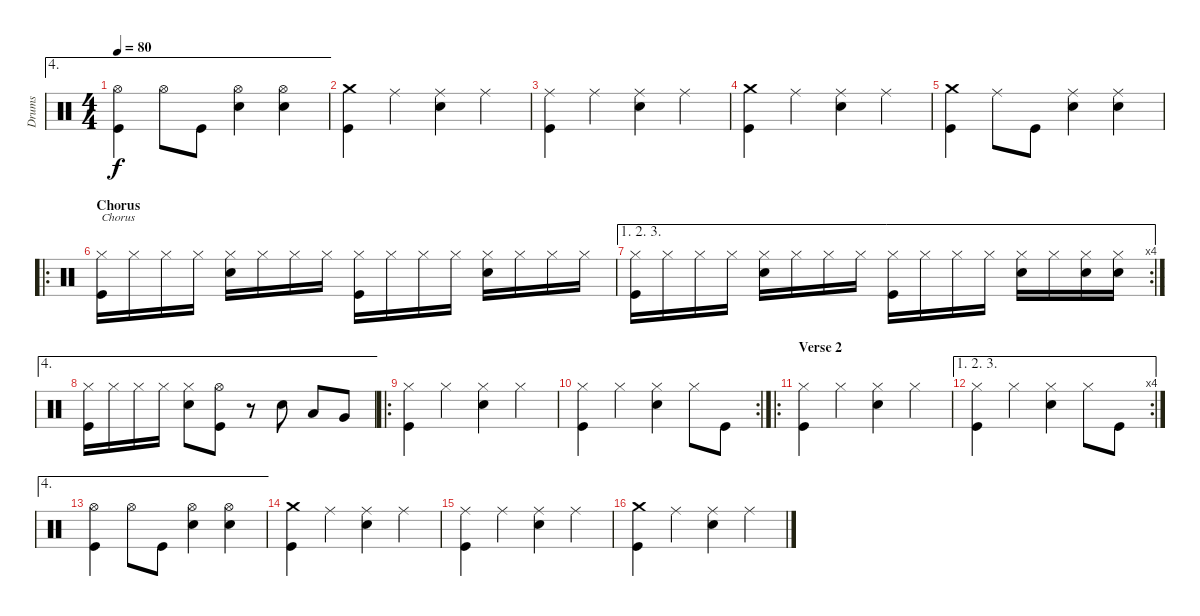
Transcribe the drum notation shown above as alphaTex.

\track ("Drums" "Drums") {instrument percussion}
\staff {score}
\articulation defaults
\ae 4
\ts (4 4)
\tempo 80
\clef neutral
\ks c
("Hi-Hat (open)" "Kick (hit)").4{dy f} "Hi-Hat (open)".8 "Kick (hit)".8 ("Hi-Hat (open)" "Snare (hit) 2").4 ("Hi-Hat (open)" "Snare (hit) 2").4 |
("Crash medium (hit)" "Kick (hit)").4 "Ride (middle)".4 ("Ride (middle)" "Snare (hit) 2").4 "Ride (middle)".4 |
("Ride (middle)" "Kick (hit)").4 "Ride (middle)".4 ("Ride (middle)" "Snare (hit) 2").4 "Ride (middle)".4 |
("Crash medium (hit)" "Kick (hit)").4 "Ride (middle)".4 ("Ride (middle)" "Snare (hit) 2").4 "Ride (middle)".4 |
("Crash medium (hit)" "Kick (hit)").4 "Ride (middle)".8 "Kick (hit)".8 ("Ride (middle)" "Snare (hit) 2").4 ("Ride (middle)" "Snare (hit) 2").4 |
\ro
\section ("" "Chorus")
("Hi-Hat (closed)" "Kick (hit)").16{txt "Chorus"} "Hi-Hat (closed)".16 "Hi-Hat (closed)".16 "Hi-Hat (closed)".16 ("Hi-Hat (closed)" "Snare (hit) 2").16 "Hi-Hat (closed)".16 "Hi-Hat (closed)".16 "Hi-Hat (closed)".16 ("Hi-Hat (closed)" "Kick (hit)").16 "Hi-Hat (closed)".16 "Hi-Hat (closed)".16 "Hi-Hat (closed)".16 ("Hi-Hat (closed)" "Snare (hit) 2").16 "Hi-Hat (closed)".16 "Hi-Hat (closed)".16 "Hi-Hat (closed)".16 |
\ae (1 2 3)
\rc 4
("Hi-Hat (closed)" "Kick (hit)").16 "Hi-Hat (closed)".16 "Hi-Hat (closed)".16 "Hi-Hat (closed)".16 ("Hi-Hat (closed)" "Snare (hit) 2").16 "Hi-Hat (closed)".16 "Hi-Hat (closed)".16 "Hi-Hat (closed)".16 ("Hi-Hat (closed)" "Kick (hit)").16 "Hi-Hat (closed)".16 "Hi-Hat (closed)".16 "Hi-Hat (closed)".16 ("Hi-Hat (closed)" "Snare (hit) 2").16 "Hi-Hat (closed)".16 ("Hi-Hat (closed)" "Snare (hit) 2").16 ("Hi-Hat (closed)" "Snare (hit) 2").16 |
\ae 4
("Hi-Hat (closed)" "Kick (hit)").16 "Hi-Hat (closed)".16 "Hi-Hat (closed)".16 "Hi-Hat (closed)".16 ("Hi-Hat (closed)" "Snare (hit) 2").8 ("Hi-Hat (open)" "Kick (hit)").8 r.8 "Snare (hit) 2".8 "Low Tom (hit)".8 "Very Low Tom (hit)".8 |
\ro
("Hi-Hat (closed)" "Kick (hit)").4 "Hi-Hat (closed)".4 ("Hi-Hat (closed)" "Snare (hit) 2").4 "Hi-Hat (closed)".4 |
\rc 2
("Hi-Hat (closed)" "Kick (hit)").4 "Hi-Hat (closed)".4 ("Hi-Hat (closed)" "Snare (hit) 2").4 "Hi-Hat (closed)".8 "Kick (hit)".8 |
\ro
\section ("" "Verse 2")
("Hi-Hat (closed)" "Kick (hit)").4 "Hi-Hat (closed)".4 ("Hi-Hat (closed)" "Snare (hit) 2").4 "Hi-Hat (closed)".4 |
\ae (1 2 3)
\rc 4
("Hi-Hat (closed)" "Kick (hit)").4 "Hi-Hat (closed)".4 ("Hi-Hat (closed)" "Snare (hit) 2").4 "Hi-Hat (closed)".8 "Kick (hit)".8 |
\ae 4
("Hi-Hat (open)" "Kick (hit)").4 "Hi-Hat (open)".8 "Kick (hit)".8 ("Hi-Hat (open)" "Snare (hit) 2").4 ("Hi-Hat (open)" "Snare (hit) 2").4 |
("Crash medium (hit)" "Kick (hit)").4 "Ride (middle)".4 ("Ride (middle)" "Snare (hit) 2").4 "Ride (middle)".4 |
("Ride (middle)" "Kick (hit)").4 "Ride (middle)".4 ("Ride (middle)" "Snare (hit) 2").4 "Ride (middle)".4 |
("Crash medium (hit)" "Kick (hit)").4 "Ride (middle)".4 ("Ride (middle)" "Snare (hit) 2").4 "Ride (middle)".4
